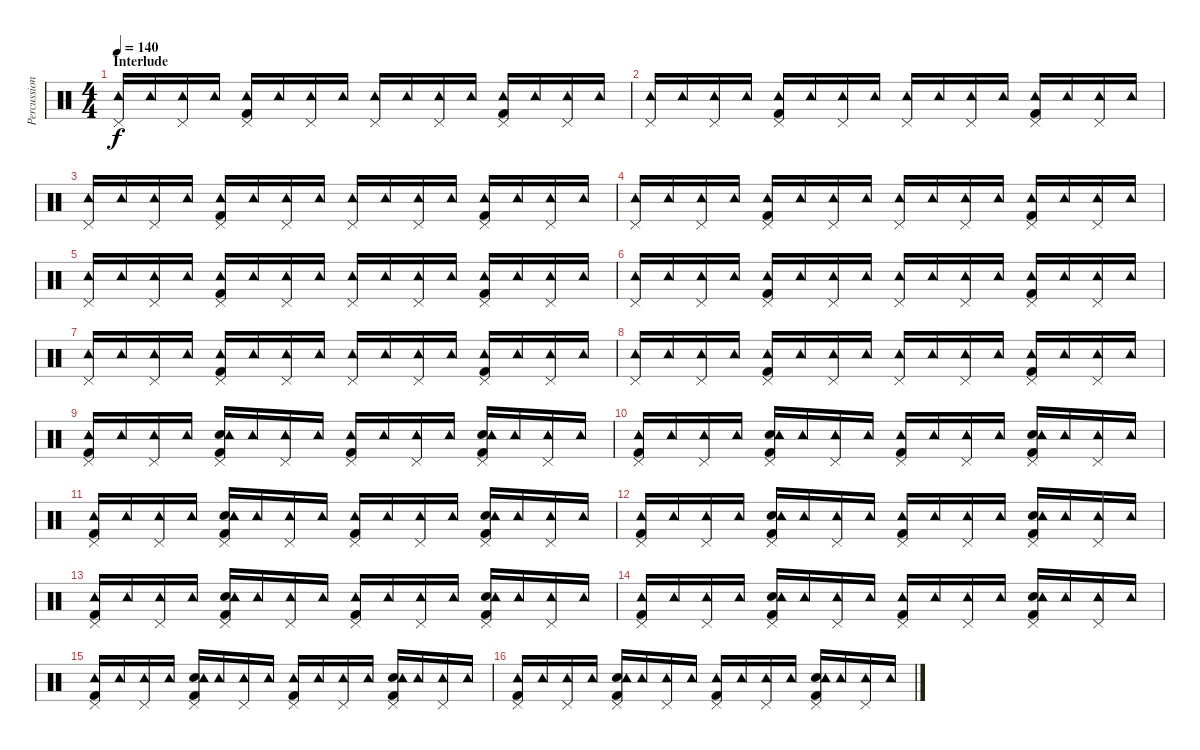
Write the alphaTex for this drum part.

\track ("Percussion" "Percussion") {instrument percussion}
\staff {score}
\articulation defaults
\ts (4 4)
\section ("" "Interlude")
\tempo 140
\clef neutral
\ks c
("Pedal Hi-Hat (hit)" "Tambourine (hit)").16{dy f volume 9} "Tambourine (hit)".16 ("Pedal Hi-Hat (hit)" "Tambourine (hit)").16 "Tambourine (hit)".16 ("Kick (hit) 2" "Pedal Hi-Hat (hit)" "Tambourine (hit)").16 "Tambourine (hit)".16 ("Pedal Hi-Hat (hit)" "Tambourine (hit)").16 "Tambourine (hit)".16 ("Pedal Hi-Hat (hit)" "Tambourine (hit)").16 "Tambourine (hit)".16 ("Pedal Hi-Hat (hit)" "Tambourine (hit)").16 "Tambourine (hit)".16 ("Kick (hit) 2" "Pedal Hi-Hat (hit)" "Tambourine (hit)").16 "Tambourine (hit)".16 ("Pedal Hi-Hat (hit)" "Tambourine (hit)").16 "Tambourine (hit)".16 |
("Pedal Hi-Hat (hit)" "Tambourine (hit)").16 "Tambourine (hit)".16 ("Pedal Hi-Hat (hit)" "Tambourine (hit)").16 "Tambourine (hit)".16 ("Kick (hit) 2" "Pedal Hi-Hat (hit)" "Tambourine (hit)").16 "Tambourine (hit)".16 ("Pedal Hi-Hat (hit)" "Tambourine (hit)").16 "Tambourine (hit)".16 ("Pedal Hi-Hat (hit)" "Tambourine (hit)").16 "Tambourine (hit)".16 ("Pedal Hi-Hat (hit)" "Tambourine (hit)").16 "Tambourine (hit)".16 ("Kick (hit) 2" "Pedal Hi-Hat (hit)" "Tambourine (hit)").16 "Tambourine (hit)".16 ("Pedal Hi-Hat (hit)" "Tambourine (hit)").16 "Tambourine (hit)".16 |
("Pedal Hi-Hat (hit)" "Tambourine (hit)").16 "Tambourine (hit)".16 ("Pedal Hi-Hat (hit)" "Tambourine (hit)").16 "Tambourine (hit)".16 ("Kick (hit) 2" "Pedal Hi-Hat (hit)" "Tambourine (hit)").16 "Tambourine (hit)".16 ("Pedal Hi-Hat (hit)" "Tambourine (hit)").16 "Tambourine (hit)".16 ("Pedal Hi-Hat (hit)" "Tambourine (hit)").16 "Tambourine (hit)".16 ("Pedal Hi-Hat (hit)" "Tambourine (hit)").16 "Tambourine (hit)".16 ("Kick (hit) 2" "Pedal Hi-Hat (hit)" "Tambourine (hit)").16 "Tambourine (hit)".16 ("Pedal Hi-Hat (hit)" "Tambourine (hit)").16 "Tambourine (hit)".16 |
("Pedal Hi-Hat (hit)" "Tambourine (hit)").16 "Tambourine (hit)".16 ("Pedal Hi-Hat (hit)" "Tambourine (hit)").16 "Tambourine (hit)".16 ("Kick (hit) 2" "Pedal Hi-Hat (hit)" "Tambourine (hit)").16 "Tambourine (hit)".16 ("Pedal Hi-Hat (hit)" "Tambourine (hit)").16 "Tambourine (hit)".16 ("Pedal Hi-Hat (hit)" "Tambourine (hit)").16 "Tambourine (hit)".16 ("Pedal Hi-Hat (hit)" "Tambourine (hit)").16 "Tambourine (hit)".16 ("Kick (hit) 2" "Pedal Hi-Hat (hit)" "Tambourine (hit)").16 "Tambourine (hit)".16 ("Pedal Hi-Hat (hit)" "Tambourine (hit)").16 "Tambourine (hit)".16 |
("Pedal Hi-Hat (hit)" "Tambourine (hit)").16 "Tambourine (hit)".16 ("Pedal Hi-Hat (hit)" "Tambourine (hit)").16 "Tambourine (hit)".16 ("Kick (hit) 2" "Pedal Hi-Hat (hit)" "Tambourine (hit)").16 "Tambourine (hit)".16 ("Pedal Hi-Hat (hit)" "Tambourine (hit)").16 "Tambourine (hit)".16 ("Pedal Hi-Hat (hit)" "Tambourine (hit)").16 "Tambourine (hit)".16 ("Pedal Hi-Hat (hit)" "Tambourine (hit)").16 "Tambourine (hit)".16 ("Kick (hit) 2" "Pedal Hi-Hat (hit)" "Tambourine (hit)").16 "Tambourine (hit)".16 ("Pedal Hi-Hat (hit)" "Tambourine (hit)").16 "Tambourine (hit)".16 |
("Pedal Hi-Hat (hit)" "Tambourine (hit)").16 "Tambourine (hit)".16 ("Pedal Hi-Hat (hit)" "Tambourine (hit)").16 "Tambourine (hit)".16 ("Kick (hit) 2" "Pedal Hi-Hat (hit)" "Tambourine (hit)").16 "Tambourine (hit)".16 ("Pedal Hi-Hat (hit)" "Tambourine (hit)").16 "Tambourine (hit)".16 ("Pedal Hi-Hat (hit)" "Tambourine (hit)").16 "Tambourine (hit)".16 ("Pedal Hi-Hat (hit)" "Tambourine (hit)").16 "Tambourine (hit)".16 ("Kick (hit) 2" "Pedal Hi-Hat (hit)" "Tambourine (hit)").16 "Tambourine (hit)".16 ("Pedal Hi-Hat (hit)" "Tambourine (hit)").16 "Tambourine (hit)".16 |
("Pedal Hi-Hat (hit)" "Tambourine (hit)").16 "Tambourine (hit)".16 ("Pedal Hi-Hat (hit)" "Tambourine (hit)").16 "Tambourine (hit)".16 ("Kick (hit) 2" "Pedal Hi-Hat (hit)" "Tambourine (hit)").16 "Tambourine (hit)".16 ("Pedal Hi-Hat (hit)" "Tambourine (hit)").16 "Tambourine (hit)".16 ("Pedal Hi-Hat (hit)" "Tambourine (hit)").16 "Tambourine (hit)".16 ("Pedal Hi-Hat (hit)" "Tambourine (hit)").16 "Tambourine (hit)".16 ("Kick (hit) 2" "Pedal Hi-Hat (hit)" "Tambourine (hit)").16 "Tambourine (hit)".16 ("Pedal Hi-Hat (hit)" "Tambourine (hit)").16 "Tambourine (hit)".16 |
("Pedal Hi-Hat (hit)" "Tambourine (hit)").16 "Tambourine (hit)".16 ("Pedal Hi-Hat (hit)" "Tambourine (hit)").16 "Tambourine (hit)".16 ("Kick (hit) 2" "Pedal Hi-Hat (hit)" "Tambourine (hit)").16 "Tambourine (hit)".16 ("Pedal Hi-Hat (hit)" "Tambourine (hit)").16 "Tambourine (hit)".16 ("Pedal Hi-Hat (hit)" "Tambourine (hit)").16 "Tambourine (hit)".16 ("Pedal Hi-Hat (hit)" "Tambourine (hit)").16 "Tambourine (hit)".16 ("Kick (hit) 2" "Pedal Hi-Hat (hit)" "Tambourine (hit)").16 "Tambourine (hit)".16 ("Pedal Hi-Hat (hit)" "Tambourine (hit)").16 "Tambourine (hit)".16 |
("Kick (hit) 2" "Pedal Hi-Hat (hit)" "Tambourine (hit)").16 "Tambourine (hit)".16 ("Pedal Hi-Hat (hit)" "Tambourine (hit)").16 "Tambourine (hit)".16 ("Electric Snare (hit)" "Kick (hit) 2" "Pedal Hi-Hat (hit)" "Tambourine (hit)").16 "Tambourine (hit)".16 ("Pedal Hi-Hat (hit)" "Tambourine (hit)").16 "Tambourine (hit)".16 ("Kick (hit) 2" "Pedal Hi-Hat (hit)" "Tambourine (hit)").16 "Tambourine (hit)".16 ("Pedal Hi-Hat (hit)" "Tambourine (hit)").16 "Tambourine (hit)".16 ("Electric Snare (hit)" "Kick (hit) 2" "Pedal Hi-Hat (hit)" "Tambourine (hit)").16 "Tambourine (hit)".16 ("Pedal Hi-Hat (hit)" "Tambourine (hit)").16 "Tambourine (hit)".16 |
("Kick (hit) 2" "Pedal Hi-Hat (hit)" "Tambourine (hit)").16 "Tambourine (hit)".16 ("Pedal Hi-Hat (hit)" "Tambourine (hit)").16 "Tambourine (hit)".16 ("Electric Snare (hit)" "Kick (hit) 2" "Pedal Hi-Hat (hit)" "Tambourine (hit)").16 "Tambourine (hit)".16 ("Pedal Hi-Hat (hit)" "Tambourine (hit)").16 "Tambourine (hit)".16 ("Kick (hit) 2" "Pedal Hi-Hat (hit)" "Tambourine (hit)").16 "Tambourine (hit)".16 ("Pedal Hi-Hat (hit)" "Tambourine (hit)").16 "Tambourine (hit)".16 ("Electric Snare (hit)" "Kick (hit) 2" "Pedal Hi-Hat (hit)" "Tambourine (hit)").16 "Tambourine (hit)".16 ("Pedal Hi-Hat (hit)" "Tambourine (hit)").16 "Tambourine (hit)".16 |
("Kick (hit) 2" "Pedal Hi-Hat (hit)" "Tambourine (hit)").16 "Tambourine (hit)".16 ("Pedal Hi-Hat (hit)" "Tambourine (hit)").16 "Tambourine (hit)".16 ("Electric Snare (hit)" "Kick (hit) 2" "Pedal Hi-Hat (hit)" "Tambourine (hit)").16 "Tambourine (hit)".16 ("Pedal Hi-Hat (hit)" "Tambourine (hit)").16 "Tambourine (hit)".16 ("Kick (hit) 2" "Pedal Hi-Hat (hit)" "Tambourine (hit)").16 "Tambourine (hit)".16 ("Pedal Hi-Hat (hit)" "Tambourine (hit)").16 "Tambourine (hit)".16 ("Electric Snare (hit)" "Kick (hit) 2" "Pedal Hi-Hat (hit)" "Tambourine (hit)").16 "Tambourine (hit)".16 ("Pedal Hi-Hat (hit)" "Tambourine (hit)").16 "Tambourine (hit)".16 |
("Kick (hit) 2" "Pedal Hi-Hat (hit)" "Tambourine (hit)").16 "Tambourine (hit)".16 ("Pedal Hi-Hat (hit)" "Tambourine (hit)").16 "Tambourine (hit)".16 ("Electric Snare (hit)" "Kick (hit) 2" "Pedal Hi-Hat (hit)" "Tambourine (hit)").16 "Tambourine (hit)".16 ("Pedal Hi-Hat (hit)" "Tambourine (hit)").16 "Tambourine (hit)".16 ("Kick (hit) 2" "Pedal Hi-Hat (hit)" "Tambourine (hit)").16 "Tambourine (hit)".16 ("Pedal Hi-Hat (hit)" "Tambourine (hit)").16 "Tambourine (hit)".16 ("Electric Snare (hit)" "Kick (hit) 2" "Pedal Hi-Hat (hit)" "Tambourine (hit)").16 "Tambourine (hit)".16 ("Pedal Hi-Hat (hit)" "Tambourine (hit)").16 "Tambourine (hit)".16 |
("Kick (hit) 2" "Pedal Hi-Hat (hit)" "Tambourine (hit)").16 "Tambourine (hit)".16 ("Pedal Hi-Hat (hit)" "Tambourine (hit)").16 "Tambourine (hit)".16 ("Electric Snare (hit)" "Kick (hit) 2" "Pedal Hi-Hat (hit)" "Tambourine (hit)").16 "Tambourine (hit)".16 ("Pedal Hi-Hat (hit)" "Tambourine (hit)").16 "Tambourine (hit)".16 ("Kick (hit) 2" "Pedal Hi-Hat (hit)" "Tambourine (hit)").16 "Tambourine (hit)".16 ("Pedal Hi-Hat (hit)" "Tambourine (hit)").16 "Tambourine (hit)".16 ("Electric Snare (hit)" "Kick (hit) 2" "Pedal Hi-Hat (hit)" "Tambourine (hit)").16 "Tambourine (hit)".16 ("Pedal Hi-Hat (hit)" "Tambourine (hit)").16 "Tambourine (hit)".16 |
("Kick (hit) 2" "Pedal Hi-Hat (hit)" "Tambourine (hit)").16 "Tambourine (hit)".16 ("Pedal Hi-Hat (hit)" "Tambourine (hit)").16 "Tambourine (hit)".16 ("Electric Snare (hit)" "Kick (hit) 2" "Pedal Hi-Hat (hit)" "Tambourine (hit)").16 "Tambourine (hit)".16 ("Pedal Hi-Hat (hit)" "Tambourine (hit)").16 "Tambourine (hit)".16 ("Kick (hit) 2" "Pedal Hi-Hat (hit)" "Tambourine (hit)").16 "Tambourine (hit)".16 ("Pedal Hi-Hat (hit)" "Tambourine (hit)").16 "Tambourine (hit)".16 ("Electric Snare (hit)" "Kick (hit) 2" "Pedal Hi-Hat (hit)" "Tambourine (hit)").16 "Tambourine (hit)".16 ("Pedal Hi-Hat (hit)" "Tambourine (hit)").16 "Tambourine (hit)".16 |
("Kick (hit) 2" "Pedal Hi-Hat (hit)" "Tambourine (hit)").16 "Tambourine (hit)".16 ("Pedal Hi-Hat (hit)" "Tambourine (hit)").16 "Tambourine (hit)".16 ("Electric Snare (hit)" "Kick (hit) 2" "Pedal Hi-Hat (hit)" "Tambourine (hit)").16 "Tambourine (hit)".16 ("Pedal Hi-Hat (hit)" "Tambourine (hit)").16 "Tambourine (hit)".16 ("Kick (hit) 2" "Pedal Hi-Hat (hit)" "Tambourine (hit)").16 "Tambourine (hit)".16 ("Pedal Hi-Hat (hit)" "Tambourine (hit)").16 "Tambourine (hit)".16 ("Electric Snare (hit)" "Kick (hit) 2" "Pedal Hi-Hat (hit)" "Tambourine (hit)").16 "Tambourine (hit)".16 ("Pedal Hi-Hat (hit)" "Tambourine (hit)").16 "Tambourine (hit)".16 |
("Kick (hit) 2" "Pedal Hi-Hat (hit)" "Tambourine (hit)").16 "Tambourine (hit)".16 ("Pedal Hi-Hat (hit)" "Tambourine (hit)").16 "Tambourine (hit)".16 ("Electric Snare (hit)" "Kick (hit) 2" "Pedal Hi-Hat (hit)" "Tambourine (hit)").16 "Tambourine (hit)".16 ("Pedal Hi-Hat (hit)" "Tambourine (hit)").16 "Tambourine (hit)".16 ("Kick (hit) 2" "Pedal Hi-Hat (hit)" "Tambourine (hit)").16 "Tambourine (hit)".16 ("Pedal Hi-Hat (hit)" "Tambourine (hit)").16 "Tambourine (hit)".16 ("Electric Snare (hit)" "Kick (hit) 2" "Pedal Hi-Hat (hit)" "Tambourine (hit)").16 "Tambourine (hit)".16 ("Pedal Hi-Hat (hit)" "Tambourine (hit)").16 "Tambourine (hit)".16
